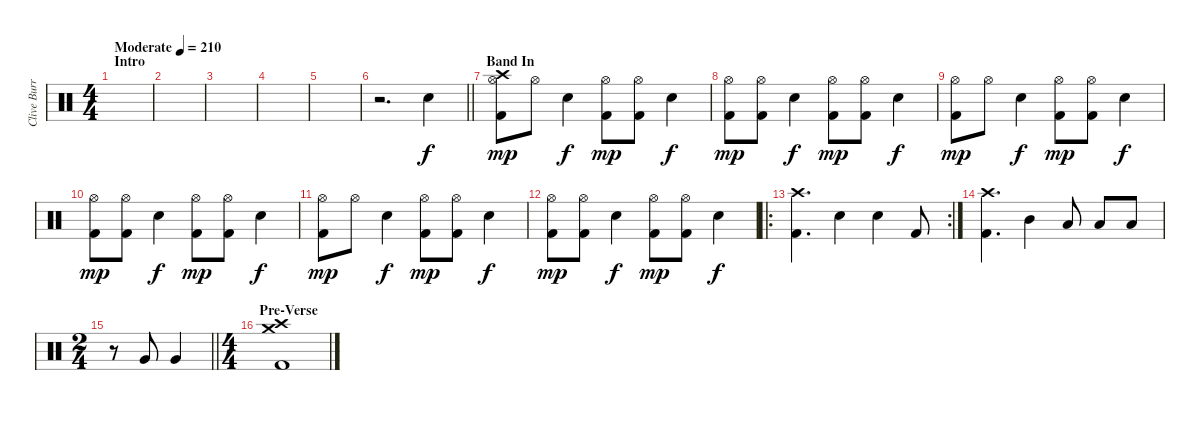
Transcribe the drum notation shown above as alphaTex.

\track ("Clive Burr" "Clive Burr") {instrument percussion}
\staff {score}
\articulation defaults
\ts (4 4)
\section ("" "Intro")
\tempo (210 "Moderate")
\clef neutral
\ks c
|
|
|
|
|
\barLineRight lightlight
r.2{d} "Snare (hit) 2".4 |
\section ("" "Band In")
("Crash high (hit)" "Hi-Hat (open)" "Kick (hit) 2").8{dy mp} "Hi-Hat (open)".8 "Snare (hit) 2".4{dy f} ("Hi-Hat (open)" "Kick (hit) 2").8{dy mp} ("Hi-Hat (open)" "Kick (hit) 2").8 "Snare (hit) 2".4{dy f} |
("Hi-Hat (open)" "Kick (hit) 2").8{dy mp} ("Hi-Hat (open)" "Kick (hit) 2").8 "Snare (hit) 2".4{dy f} ("Hi-Hat (open)" "Kick (hit) 2").8{dy mp} ("Hi-Hat (open)" "Kick (hit) 2").8 "Snare (hit) 2".4{dy f} |
("Hi-Hat (open)" "Kick (hit) 2").8{dy mp} "Hi-Hat (open)".8 "Snare (hit) 2".4{dy f} ("Hi-Hat (open)" "Kick (hit) 2").8{dy mp} ("Hi-Hat (open)" "Kick (hit) 2").8 "Snare (hit) 2".4{dy f} |
("Hi-Hat (open)" "Kick (hit) 2").8{dy mp} ("Hi-Hat (open)" "Kick (hit) 2").8 "Snare (hit) 2".4{dy f} ("Hi-Hat (open)" "Kick (hit) 2").8{dy mp} ("Hi-Hat (open)" "Kick (hit) 2").8 "Snare (hit) 2".4{dy f} |
("Hi-Hat (open)" "Kick (hit) 2").8{dy mp} "Hi-Hat (open)".8 "Snare (hit) 2".4{dy f} ("Hi-Hat (open)" "Kick (hit) 2").8{dy mp} ("Hi-Hat (open)" "Kick (hit) 2").8 "Snare (hit) 2".4{dy f} |
("Hi-Hat (open)" "Kick (hit) 2").8{dy mp} ("Hi-Hat (open)" "Kick (hit) 2").8 "Snare (hit) 2".4{dy f} ("Hi-Hat (open)" "Kick (hit) 2").8{dy mp} ("Hi-Hat (open)" "Kick (hit) 2").8 "Snare (hit) 2".4{dy f} |
\ro
\rc 2
("Crash high (hit)" "Kick (hit) 2").4{d} "Snare (hit) 2".4 "Snare (hit) 2".4 "Kick (hit) 2".8 |
("Crash high (hit)" "Kick (hit) 2").4{d} "Mid Tom (hit)".4 "Low Tom (hit)".8 "Low Tom (hit)".8 "Low Tom (hit)".8 |
\ts (2 4)
\barLineRight lightlight
r.8 "Very Low Tom (hit)".8 "Very Low Tom (hit)".4 |
\ts (4 4)
\section ("" "Pre-Verse")
("Crash high (hit)" "Crash medium (hit)" "Kick (hit) 2").1
